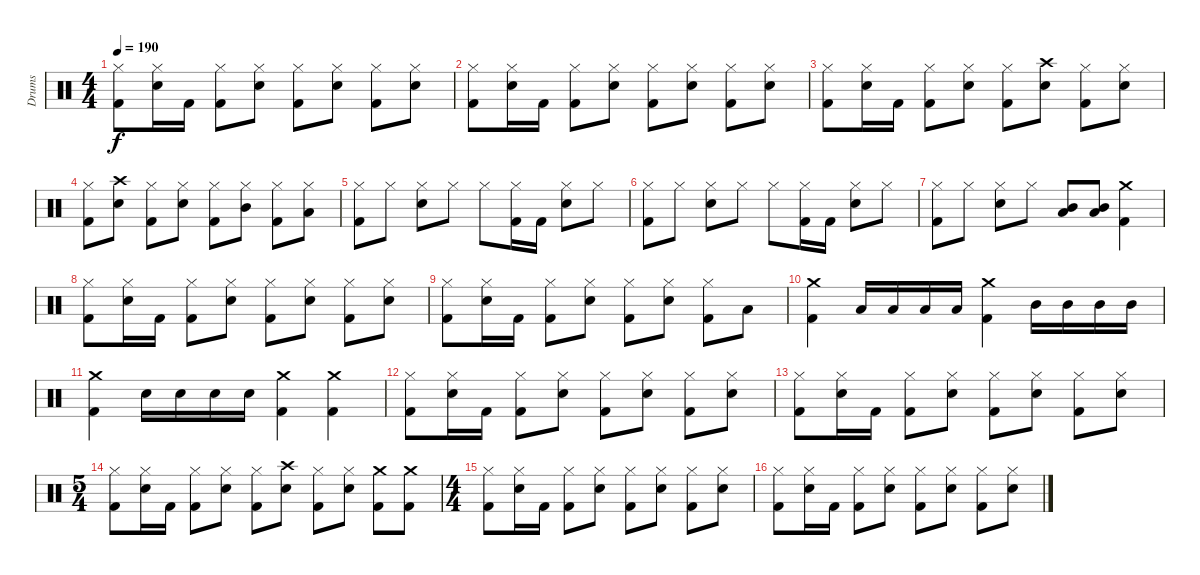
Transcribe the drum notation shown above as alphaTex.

\track ("Drums" "Drums") {instrument percussion}
\staff {score}
\articulation defaults
\ts (4 4)
\tempo 190
\clef neutral
\ks c
("Kick (hit) 2" "Hi-Hat (closed)").8{dy f} ("Snare (hit) 2" "Hi-Hat (closed)").16 "Kick (hit) 2".16 ("Kick (hit) 2" "Hi-Hat (closed)").8 ("Snare (hit) 2" "Hi-Hat (closed)").8 ("Kick (hit) 2" "Hi-Hat (closed)").8 ("Snare (hit) 2" "Hi-Hat (closed)").8 ("Kick (hit) 2" "Hi-Hat (closed)").8 ("Snare (hit) 2" "Hi-Hat (closed)").8 |
("Kick (hit) 2" "Hi-Hat (closed)").8 ("Snare (hit) 2" "Hi-Hat (closed)").16 "Kick (hit) 2".16 ("Kick (hit) 2" "Hi-Hat (closed)").8 ("Snare (hit) 2" "Hi-Hat (closed)").8 ("Kick (hit) 2" "Hi-Hat (closed)").8 ("Snare (hit) 2" "Hi-Hat (closed)").8 ("Kick (hit) 2" "Hi-Hat (closed)").8 ("Snare (hit) 2" "Hi-Hat (closed)").8 |
("Kick (hit) 2" "Hi-Hat (closed)").8 ("Snare (hit) 2" "Hi-Hat (closed)").16 "Kick (hit) 2".16 ("Kick (hit) 2" "Hi-Hat (closed)").8 ("Snare (hit) 2" "Hi-Hat (closed)").8 ("Kick (hit) 2" "Hi-Hat (closed)").8 ("Snare (hit) 2" "Crash high (hit)").8 ("Kick (hit) 2" "Hi-Hat (closed)").8 ("Snare (hit) 2" "Hi-Hat (closed)").8 |
("Kick (hit) 2" "Hi-Hat (closed)").8 ("Snare (hit) 2" "Crash high (hit)").8 ("Kick (hit) 2" "Hi-Hat (closed)").8 ("Snare (hit) 2" "Hi-Hat (closed)").8 ("Kick (hit) 2" "Hi-Hat (closed)").8 ("Hi-Hat (closed)" "Mid Tom (hit)").8 ("Kick (hit) 2" "Hi-Hat (closed)").8 ("Hi-Hat (closed)" "Low Tom (hit)").8 |
("Kick (hit) 2" "Hi-Hat (closed)").8 "Hi-Hat (closed)".8 ("Snare (hit) 2" "Hi-Hat (closed)").8 "Hi-Hat (closed)".8 "Hi-Hat (closed)".8 ("Kick (hit) 2" "Hi-Hat (closed)").16 "Kick (hit) 2".16 ("Snare (hit) 2" "Hi-Hat (closed)").8 "Hi-Hat (closed)".8 |
("Kick (hit) 2" "Hi-Hat (closed)").8 "Hi-Hat (closed)".8 ("Snare (hit) 2" "Hi-Hat (closed)").8 "Hi-Hat (closed)".8 "Hi-Hat (closed)".8 ("Kick (hit) 2" "Hi-Hat (closed)").16 "Kick (hit) 2".16 ("Snare (hit) 2" "Hi-Hat (closed)").8 "Hi-Hat (closed)".8 |
("Kick (hit) 2" "Hi-Hat (closed)").8 "Hi-Hat (closed)".8 ("Snare (hit) 2" "Hi-Hat (closed)").8 "Hi-Hat (closed)".8 ("Mid Tom (hit)" "Low Tom (hit)").8{bd 240} ("Mid Tom (hit)" "Low Tom (hit)").8{bu 240} ("Crash medium (hit)" "Kick (hit) 2").4 |
("Kick (hit) 2" "Hi-Hat (closed)").8 ("Snare (hit) 2" "Hi-Hat (closed)").16 "Kick (hit) 2".16 ("Kick (hit) 2" "Hi-Hat (closed)").8 ("Snare (hit) 2" "Hi-Hat (closed)").8 ("Kick (hit) 2" "Hi-Hat (closed)").8 ("Snare (hit) 2" "Hi-Hat (closed)").8 ("Kick (hit) 2" "Hi-Hat (closed)").8 ("Snare (hit) 2" "Hi-Hat (closed)").8 |
("Kick (hit) 2" "Hi-Hat (closed)").8 ("Snare (hit) 2" "Hi-Hat (closed)").16 "Kick (hit) 2".16 ("Kick (hit) 2" "Hi-Hat (closed)").8 ("Snare (hit) 2" "Hi-Hat (closed)").8 ("Kick (hit) 2" "Hi-Hat (closed)").8 ("Snare (hit) 2" "Hi-Hat (closed)").8 ("Kick (hit) 2" "Hi-Hat (closed)").8 "Low Tom (hit)".8 |
("Crash medium (hit)" "Kick (hit) 2").4 "Low Tom (hit)".16 "Low Tom (hit)".16 "Low Tom (hit)".16 "Low Tom (hit)".16 ("Crash medium (hit)" "Kick (hit) 2").4 "Mid Tom (hit)".16 "Mid Tom (hit)".16 "Mid Tom (hit)".16 "Mid Tom (hit)".16 |
("Crash medium (hit)" "Kick (hit) 2").4 "Snare (hit) 2".16 "Snare (hit) 2".16 "Snare (hit) 2".16 "Snare (hit) 2".16 ("Crash medium (hit)" "Kick (hit) 2").4 ("Crash medium (hit)" "Kick (hit) 2").4 |
("Kick (hit) 2" "Hi-Hat (closed)").8 ("Snare (hit) 2" "Hi-Hat (closed)").16 "Kick (hit) 2".16 ("Kick (hit) 2" "Hi-Hat (closed)").8 ("Snare (hit) 2" "Hi-Hat (closed)").8 ("Kick (hit) 2" "Hi-Hat (closed)").8 ("Snare (hit) 2" "Hi-Hat (closed)").8 ("Kick (hit) 2" "Hi-Hat (closed)").8 ("Snare (hit) 2" "Hi-Hat (closed)").8 |
("Kick (hit) 2" "Hi-Hat (closed)").8 ("Snare (hit) 2" "Hi-Hat (closed)").16 "Kick (hit) 2".16 ("Kick (hit) 2" "Hi-Hat (closed)").8 ("Snare (hit) 2" "Hi-Hat (closed)").8 ("Kick (hit) 2" "Hi-Hat (closed)").8 ("Snare (hit) 2" "Hi-Hat (closed)").8 ("Kick (hit) 2" "Hi-Hat (closed)").8 ("Snare (hit) 2" "Hi-Hat (closed)").8 |
\ts (5 4)
("Kick (hit) 2" "Hi-Hat (closed)").8 ("Snare (hit) 2" "Hi-Hat (closed)").16 "Kick (hit) 2".16 ("Kick (hit) 2" "Hi-Hat (closed)").8 ("Snare (hit) 2" "Hi-Hat (closed)").8 ("Kick (hit) 2" "Hi-Hat (closed)").8 ("Snare (hit) 2" "Crash high (hit)").8 ("Kick (hit) 2" "Hi-Hat (closed)").8 ("Snare (hit) 2" "Hi-Hat (closed)").8 ("Kick (hit) 2" "Crash medium (hit)").8 ("Kick (hit) 2" "Crash medium (hit)").8 |
\ts (4 4)
("Kick (hit) 2" "Hi-Hat (closed)").8 ("Snare (hit) 2" "Hi-Hat (closed)").16 "Kick (hit) 2".16 ("Kick (hit) 2" "Hi-Hat (closed)").8 ("Snare (hit) 2" "Hi-Hat (closed)").8 ("Kick (hit) 2" "Hi-Hat (closed)").8 ("Snare (hit) 2" "Hi-Hat (closed)").8 ("Kick (hit) 2" "Hi-Hat (closed)").8 ("Snare (hit) 2" "Hi-Hat (closed)").8 |
("Kick (hit) 2" "Hi-Hat (closed)").8 ("Snare (hit) 2" "Hi-Hat (closed)").16 "Kick (hit) 2".16 ("Kick (hit) 2" "Hi-Hat (closed)").8 ("Snare (hit) 2" "Hi-Hat (closed)").8 ("Kick (hit) 2" "Hi-Hat (closed)").8 ("Snare (hit) 2" "Hi-Hat (closed)").8 ("Kick (hit) 2" "Hi-Hat (closed)").8 ("Snare (hit) 2" "Hi-Hat (closed)").8
